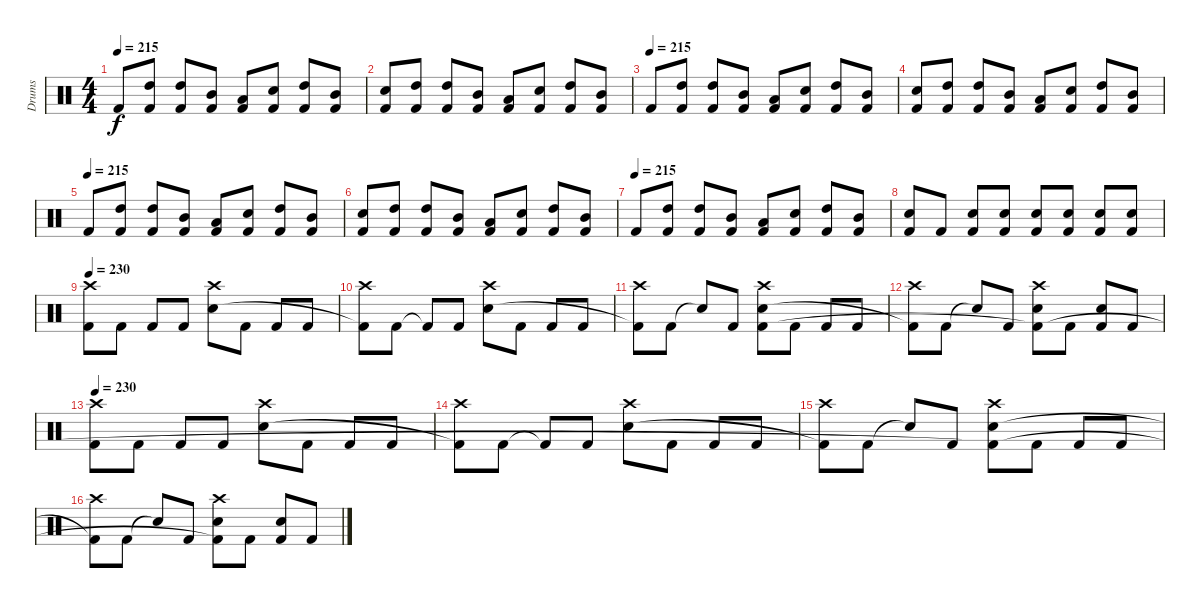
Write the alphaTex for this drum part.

\track ("Drums" "Drums") {instrument percussion}
\staff {score}
\articulation defaults
\ts (4 4)
\tempo 215
\clef neutral
\ks c "Kick (hit) 2".8{dy f}
("High Tom (hit)" "Kick (hit) 2").8 ("High Tom (hit)" "Kick (hit) 2").8 ("Mid Tom (hit)" "Kick (hit) 2").8 ("Low Tom (hit)" "Kick (hit) 2").8 ("Electric Snare (hit)" "Kick (hit) 2").8 ("High Tom (hit)" "Kick (hit) 2").8 ("Mid Tom (hit)" "Kick (hit) 2").8 |
("Electric Snare (hit)" "Kick (hit) 2").8 ("High Tom (hit)" "Kick (hit) 2").8 ("High Tom (hit)" "Kick (hit) 2").8 ("Mid Tom (hit)" "Kick (hit) 2").8 ("Low Tom (hit)" "Kick (hit) 2").8 ("Electric Snare (hit)" "Kick (hit) 2").8 ("High Tom (hit)" "Kick (hit) 2").8 ("Mid Tom (hit)" "Kick (hit) 2").8 |
\tempo (215)
"Kick (hit) 2".8 ("High Tom (hit)" "Kick (hit) 2").8 ("High Tom (hit)" "Kick (hit) 2").8 ("Mid Tom (hit)" "Kick (hit) 2").8 ("Low Tom (hit)" "Kick (hit) 2").8 ("Electric Snare (hit)" "Kick (hit) 2").8 ("High Tom (hit)" "Kick (hit) 2").8 ("Mid Tom (hit)" "Kick (hit) 2").8 |
("Electric Snare (hit)" "Kick (hit) 2").8 ("High Tom (hit)" "Kick (hit) 2").8 ("High Tom (hit)" "Kick (hit) 2").8 ("Mid Tom (hit)" "Kick (hit) 2").8 ("Low Tom (hit)" "Kick (hit) 2").8 ("Electric Snare (hit)" "Kick (hit) 2").8 ("High Tom (hit)" "Kick (hit) 2").8 ("Mid Tom (hit)" "Kick (hit) 2").8 |
\tempo (215)
"Kick (hit) 2".8 ("High Tom (hit)" "Kick (hit) 2").8 ("High Tom (hit)" "Kick (hit) 2").8 ("Mid Tom (hit)" "Kick (hit) 2").8 ("Low Tom (hit)" "Kick (hit) 2").8 ("Electric Snare (hit)" "Kick (hit) 2").8 ("High Tom (hit)" "Kick (hit) 2").8 ("Mid Tom (hit)" "Kick (hit) 2").8 |
("Electric Snare (hit)" "Kick (hit) 2").8 ("High Tom (hit)" "Kick (hit) 2").8 ("High Tom (hit)" "Kick (hit) 2").8 ("Mid Tom (hit)" "Kick (hit) 2").8 ("Low Tom (hit)" "Kick (hit) 2").8 ("Electric Snare (hit)" "Kick (hit) 2").8 ("High Tom (hit)" "Kick (hit) 2").8 ("Mid Tom (hit)" "Kick (hit) 2").8 |
\tempo (215)
"Kick (hit) 2".8 ("High Tom (hit)" "Kick (hit) 2").8 ("High Tom (hit)" "Kick (hit) 2").8 ("Mid Tom (hit)" "Kick (hit) 2").8 ("Low Tom (hit)" "Kick (hit) 2").8 ("Electric Snare (hit)" "Kick (hit) 2").8 ("High Tom (hit)" "Kick (hit) 2").8 ("Mid Tom (hit)" "Kick (hit) 2").8 |
("Electric Snare (hit)" "Kick (hit) 2").8 "Kick (hit) 2".8 ("Electric Snare (hit)" "Kick (hit) 2").8 ("Electric Snare (hit)" "Kick (hit) 2").8 ("Electric Snare (hit)" "Kick (hit) 2").8 ("Electric Snare (hit)" "Kick (hit) 2").8 ("Electric Snare (hit)" "Kick (hit) 2").8 ("Electric Snare (hit)" "Kick (hit) 2").8 |
\tempo 230
("Crash high (hit)" "Kick (hit) 2").8 "Kick (hit) 2".8 "Kick (hit) 2".8 "Kick (hit) 2".8 ("Crash high (hit)" "Electric Snare (hit)").8 "Kick (hit) 2".8 "Kick (hit) 2".8 "Kick (hit) 2".8 |
("Crash high (hit)" "Kick (hit) 2"{t}).8 "Kick (hit) 2".8 "Kick (hit) 2"{t}.8 "Kick (hit) 2".8 ("Crash high (hit)" "Electric Snare (hit)").8 "Kick (hit) 2".8 "Kick (hit) 2".8 "Kick (hit) 2".8 |
("Crash high (hit)" "Kick (hit) 2"{t}).8 "Kick (hit) 2".8 "Snare (hit)"{t}.8 "Kick (hit) 2".8 ("Crash high (hit)" "Electric Snare (hit)" "Kick (hit) 2").8 "Kick (hit) 2".8 "Kick (hit) 2".8 "Kick (hit) 2".8 |
("Crash high (hit)" "Kick (hit) 2"{t}).8 "Kick (hit) 2".8 "Snare (hit)"{t}.8 "Kick (hit) 2".8 ("Crash high (hit)" "Electric Snare (hit)" "Kick (hit) 2"{t}).8 "Kick (hit) 2".8 ("Electric Snare (hit)" "Kick (hit) 2").8 "Kick (hit) 2".8 |
\tempo 230
("Crash high (hit)" "Kick (hit) 2").8 "Kick (hit) 2".8 "Kick (hit) 2".8 "Kick (hit) 2".8 ("Crash high (hit)" "Electric Snare (hit)").8 "Kick (hit) 2".8 "Kick (hit) 2".8 "Kick (hit) 2".8 |
("Crash high (hit)" "Kick (hit) 2"{t}).8 "Kick (hit) 2".8 "Kick (hit) 2"{t}.8 "Kick (hit) 2".8 ("Crash high (hit)" "Electric Snare (hit)").8 "Kick (hit) 2".8 "Kick (hit) 2".8 "Kick (hit) 2".8 |
("Crash high (hit)" "Kick (hit) 2"{t}).8 "Kick (hit) 2".8 "Snare (hit)"{t}.8 "Kick (hit) 2".8 ("Crash high (hit)" "Electric Snare (hit)" "Kick (hit) 2"{t}).8 "Kick (hit) 2".8 "Kick (hit) 2".8 "Kick (hit) 2".8 |
("Crash high (hit)" "Kick (hit) 2"{t}).8 "Kick (hit) 2".8 "Snare (hit)"{t}.8 "Kick (hit) 2".8 ("Crash high (hit)" "Electric Snare (hit)" "Kick (hit) 2"{t}).8 "Kick (hit) 2".8 ("Electric Snare (hit)" "Kick (hit) 2").8 "Kick (hit) 2".8
